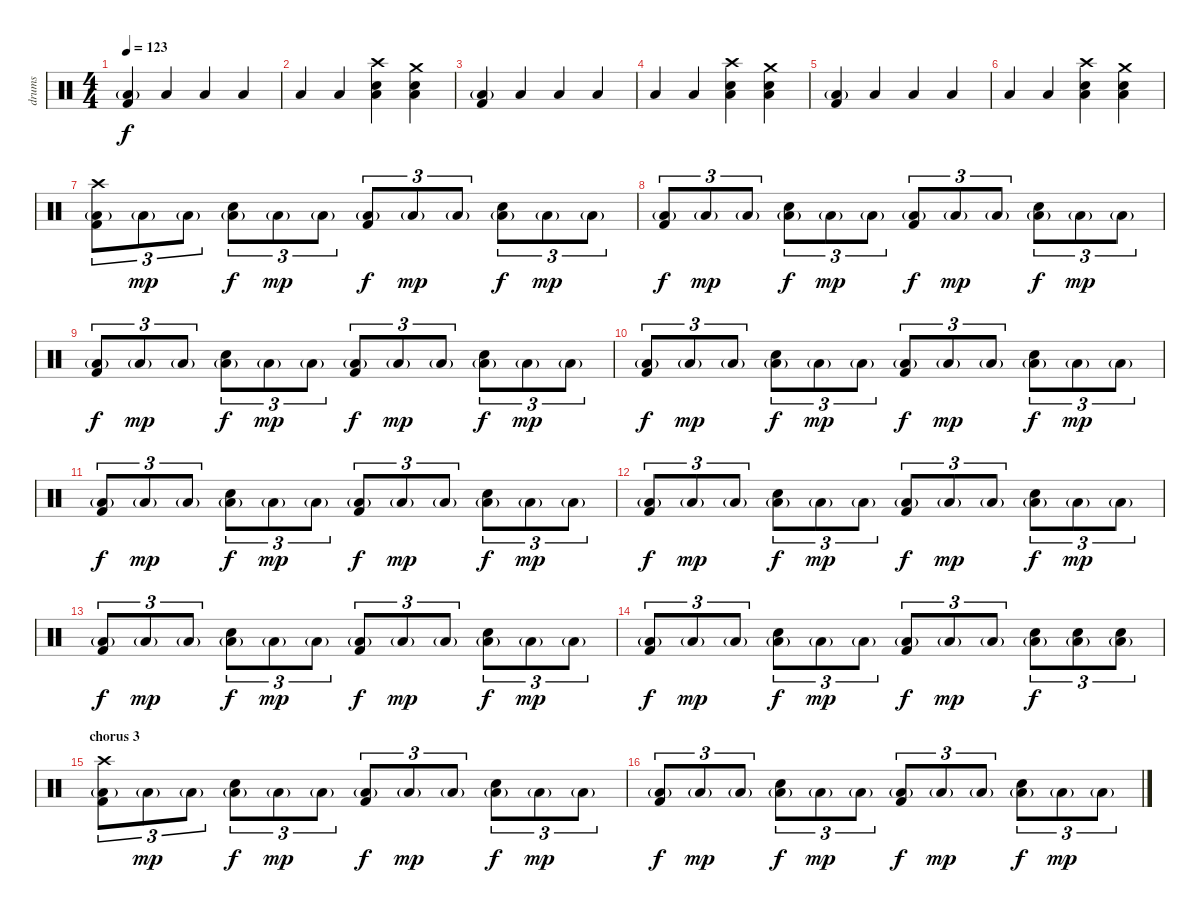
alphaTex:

\track ("drums" "drums") {instrument percussion}
\staff {score}
\articulation defaults
\ts (4 4)
\tempo 123
\clef neutral
\ks c
("Low Floor Tom (hit)"{g} "Kick (hit) 2").4{txt "" dy f} "Low Floor Tom (hit)".4{txt ""} "Low Floor Tom (hit)".4{txt ""} "Low Floor Tom (hit)".4{txt ""} |
"Low Floor Tom (hit)".4{txt ""} "Low Floor Tom (hit)".4{txt ""} ("Low Floor Tom (hit)" "Electric Snare (hit)" "Crash high (hit)").4{txt ""} ("Low Floor Tom (hit)" "Electric Snare (hit)" "Crash medium (hit)").4{txt ""} |
("Low Floor Tom (hit)"{g} "Kick (hit) 2").4{txt ""} "Low Floor Tom (hit)".4{txt ""} "Low Floor Tom (hit)".4{txt ""} "Low Floor Tom (hit)".4{txt ""} |
"Low Floor Tom (hit)".4{txt ""} "Low Floor Tom (hit)".4{txt ""} ("Low Floor Tom (hit)" "Electric Snare (hit)" "Crash high (hit)").4{txt ""} ("Low Floor Tom (hit)" "Electric Snare (hit)" "Crash medium (hit)").4{txt ""} |
("Low Floor Tom (hit)"{g} "Kick (hit) 2").4{txt ""} "Low Floor Tom (hit)".4{txt ""} "Low Floor Tom (hit)".4{txt ""} "Low Floor Tom (hit)".4{txt ""} |
"Low Floor Tom (hit)".4{txt ""} "Low Floor Tom (hit)".4{txt ""} ("Low Floor Tom (hit)" "Electric Snare (hit)" "Crash high (hit)").4{txt ""} ("Low Floor Tom (hit)" "Electric Snare (hit)" "Crash medium (hit)").4{txt ""} |
("Low Floor Tom (hit)"{g} "Kick (hit) 2" "Crash high (hit)").8{tu (3 2) txt ""} "Low Floor Tom (hit)"{g}.8{tu (3 2) txt "" dy mp} "Low Floor Tom (hit)"{g}.8{tu (3 2) txt ""} ("Low Floor Tom (hit)"{g} "Electric Snare (hit)").8{tu (3 2) txt "" dy f} "Low Floor Tom (hit)"{g}.8{tu (3 2) txt "" dy mp} "Low Floor Tom (hit)"{g}.8{tu (3 2) txt ""} ("Low Floor Tom (hit)"{g} "Kick (hit) 2").8{tu (3 2) txt "" dy f} "Low Floor Tom (hit)"{g}.8{tu (3 2) txt "" dy mp} "Low Floor Tom (hit)"{g}.8{tu (3 2) txt ""} ("Low Floor Tom (hit)"{g} "Electric Snare (hit)").8{tu (3 2) txt "" dy f} "Low Floor Tom (hit)"{g}.8{tu (3 2) txt "" dy mp} "Low Floor Tom (hit)"{g}.8{tu (3 2) txt ""} |
("Low Floor Tom (hit)"{g} "Kick (hit) 2").8{tu (3 2) txt "" dy f} "Low Floor Tom (hit)"{g}.8{tu (3 2) txt "" dy mp} "Low Floor Tom (hit)"{g}.8{tu (3 2) txt ""} ("Low Floor Tom (hit)"{g} "Electric Snare (hit)").8{tu (3 2) txt "" dy f} "Low Floor Tom (hit)"{g}.8{tu (3 2) txt "" dy mp} "Low Floor Tom (hit)"{g}.8{tu (3 2) txt ""} ("Low Floor Tom (hit)"{g} "Kick (hit) 2").8{tu (3 2) txt "" dy f} "Low Floor Tom (hit)"{g}.8{tu (3 2) txt "" dy mp} "Low Floor Tom (hit)"{g}.8{tu (3 2) txt ""} ("Low Floor Tom (hit)"{g} "Electric Snare (hit)").8{tu (3 2) txt "" dy f} "Low Floor Tom (hit)"{g}.8{tu (3 2) txt "" dy mp} "Low Floor Tom (hit)"{g}.8{tu (3 2) txt ""} |
("Low Floor Tom (hit)"{g} "Kick (hit) 2").8{tu (3 2) txt "" dy f} "Low Floor Tom (hit)"{g}.8{tu (3 2) txt "" dy mp} "Low Floor Tom (hit)"{g}.8{tu (3 2) txt ""} ("Low Floor Tom (hit)"{g} "Electric Snare (hit)").8{tu (3 2) txt "" dy f} "Low Floor Tom (hit)"{g}.8{tu (3 2) txt "" dy mp} "Low Floor Tom (hit)"{g}.8{tu (3 2) txt ""} ("Low Floor Tom (hit)"{g} "Kick (hit) 2").8{tu (3 2) txt "" dy f} "Low Floor Tom (hit)"{g}.8{tu (3 2) txt "" dy mp} "Low Floor Tom (hit)"{g}.8{tu (3 2) txt ""} ("Low Floor Tom (hit)"{g} "Electric Snare (hit)").8{tu (3 2) txt "" dy f} "Low Floor Tom (hit)"{g}.8{tu (3 2) txt "" dy mp} "Low Floor Tom (hit)"{g}.8{tu (3 2) txt ""} |
("Low Floor Tom (hit)"{g} "Kick (hit) 2").8{tu (3 2) txt "" dy f} "Low Floor Tom (hit)"{g}.8{tu (3 2) txt "" dy mp} "Low Floor Tom (hit)"{g}.8{tu (3 2) txt ""} ("Low Floor Tom (hit)"{g} "Electric Snare (hit)").8{tu (3 2) txt "" dy f} "Low Floor Tom (hit)"{g}.8{tu (3 2) txt "" dy mp} "Low Floor Tom (hit)"{g}.8{tu (3 2) txt ""} ("Low Floor Tom (hit)"{g} "Kick (hit) 2").8{tu (3 2) txt "" dy f} "Low Floor Tom (hit)"{g}.8{tu (3 2) txt "" dy mp} "Low Floor Tom (hit)"{g}.8{tu (3 2) txt ""} ("Low Floor Tom (hit)"{g} "Electric Snare (hit)").8{tu (3 2) txt "" dy f} "Low Floor Tom (hit)"{g}.8{tu (3 2) txt "" dy mp} "Low Floor Tom (hit)"{g}.8{tu (3 2) txt ""} |
("Low Floor Tom (hit)"{g} "Kick (hit) 2").8{tu (3 2) txt "" dy f} "Low Floor Tom (hit)"{g}.8{tu (3 2) txt "" dy mp} "Low Floor Tom (hit)"{g}.8{tu (3 2) txt ""} ("Low Floor Tom (hit)"{g} "Electric Snare (hit)").8{tu (3 2) txt "" dy f} "Low Floor Tom (hit)"{g}.8{tu (3 2) txt "" dy mp} "Low Floor Tom (hit)"{g}.8{tu (3 2) txt ""} ("Low Floor Tom (hit)"{g} "Kick (hit) 2").8{tu (3 2) txt "" dy f} "Low Floor Tom (hit)"{g}.8{tu (3 2) txt "" dy mp} "Low Floor Tom (hit)"{g}.8{tu (3 2) txt ""} ("Low Floor Tom (hit)"{g} "Electric Snare (hit)").8{tu (3 2) txt "" dy f} "Low Floor Tom (hit)"{g}.8{tu (3 2) txt "" dy mp} "Low Floor Tom (hit)"{g}.8{tu (3 2) txt ""} |
("Low Floor Tom (hit)"{g} "Kick (hit) 2").8{tu (3 2) txt "" dy f} "Low Floor Tom (hit)"{g}.8{tu (3 2) txt "" dy mp} "Low Floor Tom (hit)"{g}.8{tu (3 2) txt ""} ("Low Floor Tom (hit)"{g} "Electric Snare (hit)").8{tu (3 2) txt "" dy f} "Low Floor Tom (hit)"{g}.8{tu (3 2) txt "" dy mp} "Low Floor Tom (hit)"{g}.8{tu (3 2) txt ""} ("Low Floor Tom (hit)"{g} "Kick (hit) 2").8{tu (3 2) txt "" dy f} "Low Floor Tom (hit)"{g}.8{tu (3 2) txt "" dy mp} "Low Floor Tom (hit)"{g}.8{tu (3 2) txt ""} ("Low Floor Tom (hit)"{g} "Electric Snare (hit)").8{tu (3 2) txt "" dy f} "Low Floor Tom (hit)"{g}.8{tu (3 2) txt "" dy mp} "Low Floor Tom (hit)"{g}.8{tu (3 2) txt ""} |
("Low Floor Tom (hit)"{g} "Kick (hit) 2").8{tu (3 2) txt "" dy f} "Low Floor Tom (hit)"{g}.8{tu (3 2) txt "" dy mp} "Low Floor Tom (hit)"{g}.8{tu (3 2) txt ""} ("Low Floor Tom (hit)"{g} "Electric Snare (hit)").8{tu (3 2) txt "" dy f} "Low Floor Tom (hit)"{g}.8{tu (3 2) txt "" dy mp} "Low Floor Tom (hit)"{g}.8{tu (3 2) txt ""} ("Low Floor Tom (hit)"{g} "Kick (hit) 2").8{tu (3 2) txt "" dy f} "Low Floor Tom (hit)"{g}.8{tu (3 2) txt "" dy mp} "Low Floor Tom (hit)"{g}.8{tu (3 2) txt ""} ("Low Floor Tom (hit)"{g} "Electric Snare (hit)").8{tu (3 2) txt "" dy f} "Low Floor Tom (hit)"{g}.8{tu (3 2) txt "" dy mp} "Low Floor Tom (hit)"{g}.8{tu (3 2) txt ""} |
("Low Floor Tom (hit)"{g} "Kick (hit) 2").8{tu (3 2) txt "" dy f} "Low Floor Tom (hit)"{g}.8{tu (3 2) txt "" dy mp} "Low Floor Tom (hit)"{g}.8{tu (3 2) txt ""} ("Low Floor Tom (hit)"{g} "Electric Snare (hit)").8{tu (3 2) txt "" dy f} "Low Floor Tom (hit)"{g}.8{tu (3 2) txt "" dy mp} "Low Floor Tom (hit)"{g}.8{tu (3 2) txt ""} ("Low Floor Tom (hit)"{g} "Kick (hit) 2").8{tu (3 2) txt "" dy f} "Low Floor Tom (hit)"{g}.8{tu (3 2) txt "" dy mp} "Low Floor Tom (hit)"{g}.8{tu (3 2) txt ""} ("Low Floor Tom (hit)"{g} "Electric Snare (hit)").8{tu (3 2) txt "" dy f} ("Low Floor Tom (hit)"{g} "Electric Snare (hit)").8{tu (3 2) txt ""} ("Low Floor Tom (hit)"{g} "Electric Snare (hit)").8{tu (3 2) txt ""} |
\section ("" "chorus 3")
("Low Floor Tom (hit)"{g} "Kick (hit) 2" "Crash high (hit)").8{tu (3 2) txt ""} "Low Floor Tom (hit)"{g}.8{tu (3 2) txt "" dy mp} "Low Floor Tom (hit)"{g}.8{tu (3 2) txt ""} ("Low Floor Tom (hit)"{g} "Electric Snare (hit)").8{tu (3 2) txt "" dy f} "Low Floor Tom (hit)"{g}.8{tu (3 2) txt "" dy mp} "Low Floor Tom (hit)"{g}.8{tu (3 2) txt ""} ("Low Floor Tom (hit)"{g} "Kick (hit) 2").8{tu (3 2) txt "" dy f} "Low Floor Tom (hit)"{g}.8{tu (3 2) txt "" dy mp} "Low Floor Tom (hit)"{g}.8{tu (3 2) txt ""} ("Low Floor Tom (hit)"{g} "Electric Snare (hit)").8{tu (3 2) txt "" dy f} "Low Floor Tom (hit)"{g}.8{tu (3 2) txt "" dy mp} "Low Floor Tom (hit)"{g}.8{tu (3 2) txt ""} |
("Low Floor Tom (hit)"{g} "Kick (hit) 2").8{tu (3 2) txt "" dy f} "Low Floor Tom (hit)"{g}.8{tu (3 2) txt "" dy mp} "Low Floor Tom (hit)"{g}.8{tu (3 2) txt ""} ("Low Floor Tom (hit)"{g} "Electric Snare (hit)").8{tu (3 2) txt "" dy f} "Low Floor Tom (hit)"{g}.8{tu (3 2) txt "" dy mp} "Low Floor Tom (hit)"{g}.8{tu (3 2) txt ""} ("Low Floor Tom (hit)"{g} "Kick (hit) 2").8{tu (3 2) txt "" dy f} "Low Floor Tom (hit)"{g}.8{tu (3 2) txt "" dy mp} "Low Floor Tom (hit)"{g}.8{tu (3 2) txt ""} ("Low Floor Tom (hit)"{g} "Electric Snare (hit)").8{tu (3 2) txt "" dy f} "Low Floor Tom (hit)"{g}.8{tu (3 2) txt "" dy mp} "Low Floor Tom (hit)"{g}.8{tu (3 2) txt ""}
